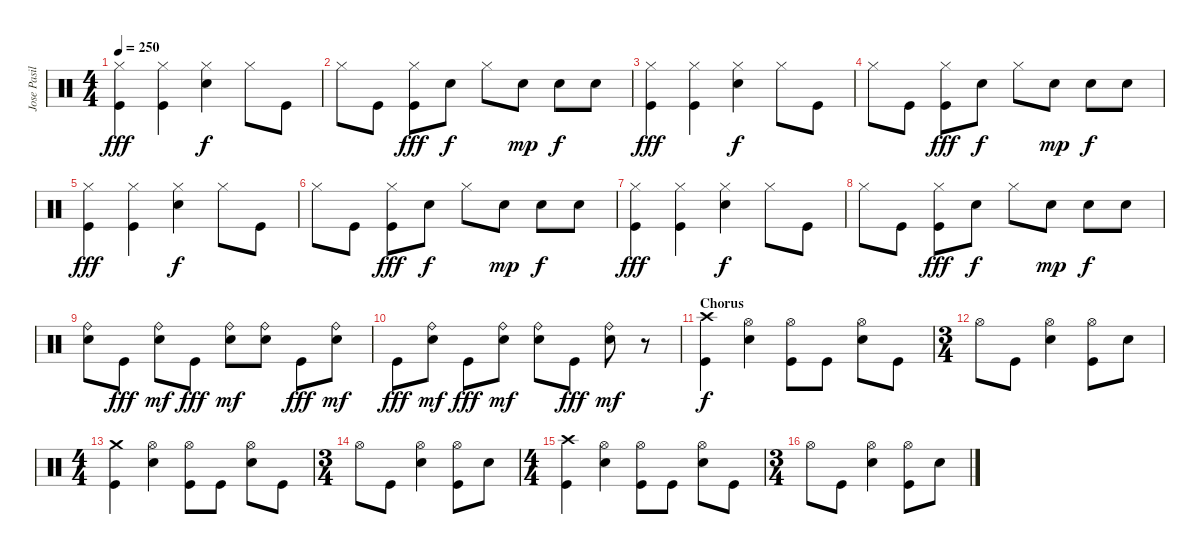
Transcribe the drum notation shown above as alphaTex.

\track ("Jose Pasillas II" "Jose Pasil") {instrument percussion}
\staff {score}
\articulation defaults
\ts (4 4)
\tempo 250
\clef neutral
\ks c
("Hi-Hat (closed)" "Kick (hit)").4{dy fff} ("Hi-Hat (closed)" "Kick (hit)").4 ("Hi-Hat (closed)" "Electric Snare (hit)").4{dy f} "Hi-Hat (closed)".8 "Kick (hit)".8 |
"Hi-Hat (closed)".8 "Kick (hit)".8 ("Hi-Hat (closed)" "Kick (hit)").8{dy fff} "Electric Snare (hit)".8{dy f} "Hi-Hat (closed)".8 "Electric Snare (hit)".8{dy mp} "Electric Snare (hit)".8{dy f} "Electric Snare (hit)".8 |
("Hi-Hat (closed)" "Kick (hit)").4{dy fff} ("Hi-Hat (closed)" "Kick (hit)").4 ("Hi-Hat (closed)" "Electric Snare (hit)").4{dy f} "Hi-Hat (closed)".8 "Kick (hit)".8 |
"Hi-Hat (closed)".8 "Kick (hit)".8 ("Hi-Hat (closed)" "Kick (hit)").8{dy fff} "Electric Snare (hit)".8{dy f} "Hi-Hat (closed)".8 "Electric Snare (hit)".8{dy mp} "Electric Snare (hit)".8{dy f} "Electric Snare (hit)".8 |
("Hi-Hat (closed)" "Kick (hit)").4{dy fff} ("Hi-Hat (closed)" "Kick (hit)").4 ("Hi-Hat (closed)" "Electric Snare (hit)").4{dy f} "Hi-Hat (closed)".8 "Kick (hit)".8 |
"Hi-Hat (closed)".8 "Kick (hit)".8 ("Hi-Hat (closed)" "Kick (hit)").8{dy fff} "Electric Snare (hit)".8{dy f} "Hi-Hat (closed)".8 "Electric Snare (hit)".8{dy mp} "Electric Snare (hit)".8{dy f} "Electric Snare (hit)".8 |
("Hi-Hat (closed)" "Kick (hit)").4{dy fff} ("Hi-Hat (closed)" "Kick (hit)").4 ("Hi-Hat (closed)" "Electric Snare (hit)").4{dy f} "Hi-Hat (closed)".8 "Kick (hit)".8 |
"Hi-Hat (closed)".8 "Kick (hit)".8 ("Hi-Hat (closed)" "Kick (hit)").8{dy fff} "Electric Snare (hit)".8{dy f} "Hi-Hat (closed)".8 "Electric Snare (hit)".8{dy mp} "Electric Snare (hit)".8{dy f} "Electric Snare (hit)".8 |
("Ride (bell)" "Electric Snare (hit)").8 "Kick (hit)".8{dy fff} ("Ride (bell)" "Electric Snare (hit)").8{dy mf} "Kick (hit)".8{dy fff} ("Ride (bell)" "Electric Snare (hit)").8{dy mf} ("Ride (bell)" "Electric Snare (hit)").8 "Kick (hit)".8{dy fff} ("Ride (bell)" "Electric Snare (hit)").8{dy mf} |
"Kick (hit)".8{dy fff} ("Ride (bell)" "Electric Snare (hit)").8{dy mf} "Kick (hit)".8{dy fff} ("Ride (bell)" "Electric Snare (hit)").8{dy mf} ("Ride (bell)" "Electric Snare (hit)").8 "Kick (hit)".8{dy fff} ("Ride (bell)" "Electric Snare (hit)").8{dy mf} r.8 |
\section ("" "Chorus")
("Crash high (hit)" "Kick (hit)").4{dy f} ("Hi-Hat (open)" "Electric Snare (hit)").4 ("Hi-Hat (open)" "Kick (hit)").8 "Kick (hit)".8 ("Hi-Hat (open)" "Electric Snare (hit)").8 "Kick (hit)".8 |
\ts (3 4)
"Hi-Hat (open)".8 "Kick (hit)".8 ("Hi-Hat (open)" "Electric Snare (hit)").4 ("Hi-Hat (open)" "Kick (hit)").8 "Electric Snare (hit)".8 |
\ts (4 4)
("Crash medium (hit)" "Kick (hit)").4 ("Hi-Hat (open)" "Electric Snare (hit)").4 ("Hi-Hat (open)" "Kick (hit)").8 "Kick (hit)".8 ("Hi-Hat (open)" "Electric Snare (hit)").8 "Kick (hit)".8 |
\ts (3 4)
"Hi-Hat (open)".8 "Kick (hit)".8 ("Hi-Hat (open)" "Electric Snare (hit)").4 ("Hi-Hat (open)" "Kick (hit)").8 "Electric Snare (hit)".8 |
\ts (4 4)
("Crash high (hit)" "Kick (hit)").4 ("Hi-Hat (open)" "Electric Snare (hit)").4 ("Hi-Hat (open)" "Kick (hit)").8 "Kick (hit)".8 ("Hi-Hat (open)" "Electric Snare (hit)").8 "Kick (hit)".8 |
\ts (3 4)
"Hi-Hat (open)".8 "Kick (hit)".8 ("Hi-Hat (open)" "Electric Snare (hit)").4 ("Hi-Hat (open)" "Kick (hit)").8 "Electric Snare (hit)".8
